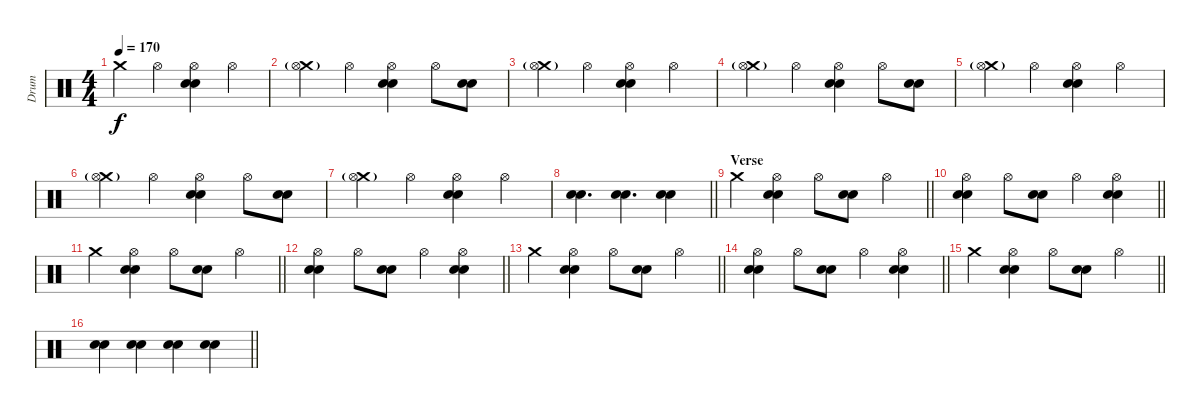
\track ("Drum" "Drum") {instrument percussion}
\staff
\articulation defaults
\ts (4 4)
\tempo 170
\clef neutral
\ks c "Crash medium (hit)".4{dy f} "Hi-Hat (open)".4
("Hi-Hat (open)" "Electric Snare (hit)" "Snare (hit) 2").4 "Hi-Hat (open)".4 |
("Crash medium (hit)"{g} "Hi-Hat (open)").4 "Hi-Hat (open)".4 ("Hi-Hat (open)" "Electric Snare (hit)" "Snare (hit) 2").4 "Hi-Hat (open)".8 ("Electric Snare (hit)" "Snare (hit) 2").8 |
("Crash medium (hit)"{g} "Hi-Hat (open)").4 "Hi-Hat (open)".4 ("Hi-Hat (open)" "Electric Snare (hit)" "Snare (hit) 2").4 "Hi-Hat (open)".4 |
("Crash medium (hit)"{g} "Hi-Hat (open)").4 "Hi-Hat (open)".4 ("Hi-Hat (open)" "Electric Snare (hit)" "Snare (hit) 2").4 "Hi-Hat (open)".8 ("Electric Snare (hit)" "Snare (hit) 2").8 |
("Crash medium (hit)"{g} "Hi-Hat (open)").4 "Hi-Hat (open)".4 ("Hi-Hat (open)" "Electric Snare (hit)" "Snare (hit) 2").4 "Hi-Hat (open)".4 |
("Crash medium (hit)"{g} "Hi-Hat (open)").4 "Hi-Hat (open)".4 ("Hi-Hat (open)" "Electric Snare (hit)" "Snare (hit) 2").4 "Hi-Hat (open)".8 ("Electric Snare (hit)" "Snare (hit) 2").8 |
("Crash medium (hit)"{g} "Hi-Hat (open)").4 "Hi-Hat (open)".4 ("Hi-Hat (open)" "Electric Snare (hit)" "Snare (hit) 2").4 "Hi-Hat (open)".4 |
\barLineRight lightlight
("Electric Snare (hit)" "Snare (hit) 2").4{d} ("Electric Snare (hit)" "Snare (hit) 2").4{d} ("Electric Snare (hit)" "Snare (hit) 2").4 |
\section ("" "Verse")
\barLineRight lightlight "Crash medium (hit)".4
("Hi-Hat (open)" "Electric Snare (hit)" "Snare (hit) 2").4 "Hi-Hat (open)".8 ("Electric Snare (hit)" "Snare (hit) 2").8 "Hi-Hat (open)".4 |
\barLineRight lightlight
("Hi-Hat (open)" "Electric Snare (hit)" "Snare (hit) 2").4 "Hi-Hat (open)".8 ("Electric Snare (hit)" "Snare (hit) 2").8 "Hi-Hat (open)".4 ("Hi-Hat (open)" "Electric Snare (hit)" "Snare (hit) 2").4 |
\barLineRight lightlight "Crash medium (hit)".4
("Hi-Hat (open)" "Electric Snare (hit)" "Snare (hit) 2").4 "Hi-Hat (open)".8 ("Electric Snare (hit)" "Snare (hit) 2").8 "Hi-Hat (open)".4 |
\barLineRight lightlight
("Hi-Hat (open)" "Electric Snare (hit)" "Snare (hit) 2").4 "Hi-Hat (open)".8 ("Electric Snare (hit)" "Snare (hit) 2").8 "Hi-Hat (open)".4 ("Hi-Hat (open)" "Electric Snare (hit)" "Snare (hit) 2").4 |
\barLineRight lightlight "Crash medium (hit)".4
("Hi-Hat (open)" "Electric Snare (hit)" "Snare (hit) 2").4 "Hi-Hat (open)".8 ("Electric Snare (hit)" "Snare (hit) 2").8 "Hi-Hat (open)".4 |
\barLineRight lightlight
("Hi-Hat (open)" "Electric Snare (hit)" "Snare (hit) 2").4 "Hi-Hat (open)".8 ("Electric Snare (hit)" "Snare (hit) 2").8 "Hi-Hat (open)".4 ("Hi-Hat (open)" "Electric Snare (hit)" "Snare (hit) 2").4 |
\barLineRight lightlight "Crash medium (hit)".4
("Hi-Hat (open)" "Electric Snare (hit)" "Snare (hit) 2").4 "Hi-Hat (open)".8 ("Electric Snare (hit)" "Snare (hit) 2").8 "Hi-Hat (open)".4 |
\barLineRight lightlight
("Electric Snare (hit)" "Snare (hit) 2").4 ("Electric Snare (hit)" "Snare (hit) 2").4 ("Electric Snare (hit)" "Snare (hit) 2").4 ("Electric Snare (hit)" "Snare (hit) 2").4
